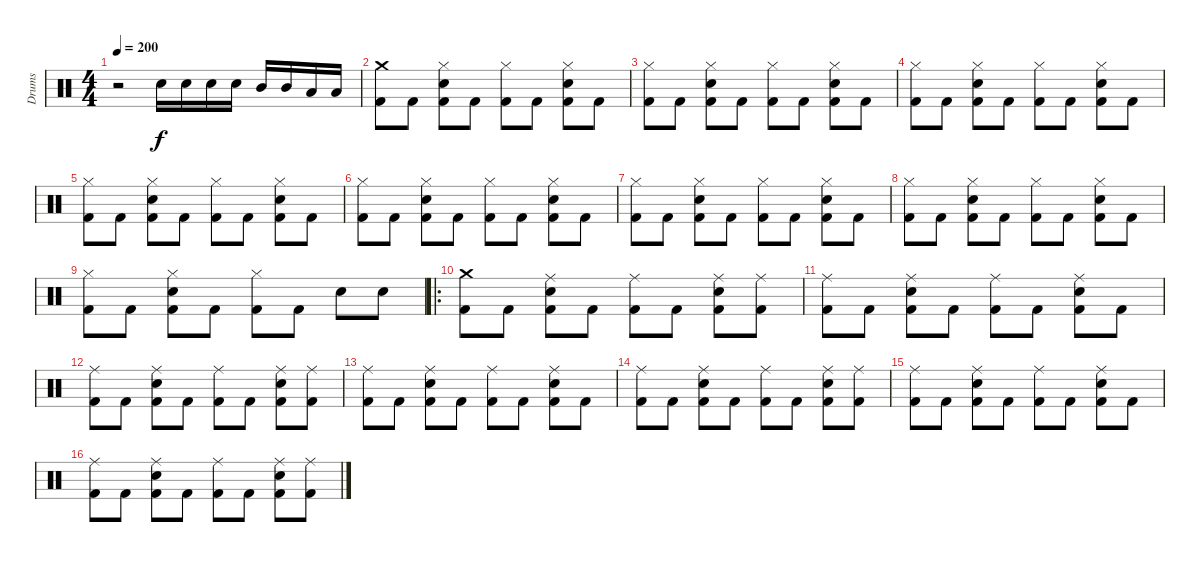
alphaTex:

\track ("Drums" "Drums") {instrument percussion}
\staff {score}
\articulation defaults
\ts (4 4)
\tempo 200
\clef neutral
\ks c
r.2{dy f} "Electric Snare (hit)".16 "Electric Snare (hit)".16 "Electric Snare (hit)".16 "Electric Snare (hit)".16 "Mid Tom (hit)".16 "Mid Tom (hit)".16 "Low Tom (hit)".16 "Low Tom (hit)".16 |
("Kick (hit) 2" "Crash medium (hit)").8 "Kick (hit) 2".8 ("Kick (hit) 2" "Hi-Hat (closed)" "Electric Snare (hit)").8 "Kick (hit) 2".8 ("Kick (hit) 2" "Hi-Hat (closed)").8 "Kick (hit) 2".8 ("Kick (hit) 2" "Hi-Hat (closed)" "Electric Snare (hit)").8 "Kick (hit) 2".8 |
("Kick (hit) 2" "Hi-Hat (closed)").8 "Kick (hit) 2".8 ("Kick (hit) 2" "Hi-Hat (closed)" "Electric Snare (hit)").8 "Kick (hit) 2".8 ("Kick (hit) 2" "Hi-Hat (closed)").8 "Kick (hit) 2".8 ("Kick (hit) 2" "Hi-Hat (closed)" "Electric Snare (hit)").8 "Kick (hit) 2".8 |
("Kick (hit) 2" "Hi-Hat (closed)").8 "Kick (hit) 2".8 ("Kick (hit) 2" "Hi-Hat (closed)" "Electric Snare (hit)").8 "Kick (hit) 2".8 ("Kick (hit) 2" "Hi-Hat (closed)").8 "Kick (hit) 2".8 ("Kick (hit) 2" "Hi-Hat (closed)" "Electric Snare (hit)").8 "Kick (hit) 2".8 |
("Kick (hit) 2" "Hi-Hat (closed)").8 "Kick (hit) 2".8 ("Kick (hit) 2" "Hi-Hat (closed)" "Electric Snare (hit)").8 "Kick (hit) 2".8 ("Kick (hit) 2" "Hi-Hat (closed)").8 "Kick (hit) 2".8 ("Kick (hit) 2" "Hi-Hat (closed)" "Electric Snare (hit)").8 "Kick (hit) 2".8 |
("Kick (hit) 2" "Hi-Hat (closed)").8 "Kick (hit) 2".8 ("Kick (hit) 2" "Hi-Hat (closed)" "Electric Snare (hit)").8 "Kick (hit) 2".8 ("Kick (hit) 2" "Hi-Hat (closed)").8 "Kick (hit) 2".8 ("Kick (hit) 2" "Hi-Hat (closed)" "Electric Snare (hit)").8 "Kick (hit) 2".8 |
("Kick (hit) 2" "Hi-Hat (closed)").8 "Kick (hit) 2".8 ("Kick (hit) 2" "Hi-Hat (closed)" "Electric Snare (hit)").8 "Kick (hit) 2".8 ("Kick (hit) 2" "Hi-Hat (closed)").8 "Kick (hit) 2".8 ("Kick (hit) 2" "Hi-Hat (closed)" "Electric Snare (hit)").8 "Kick (hit) 2".8 |
("Kick (hit) 2" "Hi-Hat (closed)").8 "Kick (hit) 2".8 ("Kick (hit) 2" "Hi-Hat (closed)" "Electric Snare (hit)").8 "Kick (hit) 2".8 ("Kick (hit) 2" "Hi-Hat (closed)").8 "Kick (hit) 2".8 ("Kick (hit) 2" "Hi-Hat (closed)" "Electric Snare (hit)").8 "Kick (hit) 2".8 |
("Kick (hit) 2" "Hi-Hat (closed)").8 "Kick (hit) 2".8 ("Kick (hit) 2" "Hi-Hat (closed)" "Electric Snare (hit)").8 "Kick (hit) 2".8 ("Kick (hit) 2" "Hi-Hat (closed)").8 "Kick (hit) 2".8 "Electric Snare (hit)".8 "Electric Snare (hit)".8 |
\ro
("Kick (hit) 2" "Crash medium (hit)").8 "Kick (hit) 2".8 ("Kick (hit) 2" "Ride (middle)" "Electric Snare (hit)").8 "Kick (hit) 2".8 ("Kick (hit) 2" "Ride (middle)").8 "Kick (hit) 2".8 ("Kick (hit) 2" "Ride (middle)" "Electric Snare (hit)").8 ("Kick (hit) 2" "Ride (middle)").8 |
("Kick (hit) 2" "Ride (middle)").8 "Kick (hit) 2".8 ("Kick (hit) 2" "Ride (middle)" "Electric Snare (hit)").8 "Kick (hit) 2".8 ("Kick (hit) 2" "Ride (middle)").8 "Kick (hit) 2".8 ("Kick (hit) 2" "Ride (middle)" "Electric Snare (hit)").8 "Kick (hit) 2".8 |
("Kick (hit) 2" "Ride (middle)").8 "Kick (hit) 2".8 ("Kick (hit) 2" "Ride (middle)" "Electric Snare (hit)").8 "Kick (hit) 2".8 ("Kick (hit) 2" "Ride (middle)").8 "Kick (hit) 2".8 ("Kick (hit) 2" "Ride (middle)" "Electric Snare (hit)").8 ("Kick (hit) 2" "Ride (middle)").8 |
("Kick (hit) 2" "Ride (middle)").8 "Kick (hit) 2".8 ("Kick (hit) 2" "Ride (middle)" "Electric Snare (hit)").8 "Kick (hit) 2".8 ("Kick (hit) 2" "Ride (middle)").8 "Kick (hit) 2".8 ("Kick (hit) 2" "Ride (middle)" "Electric Snare (hit)").8 "Kick (hit) 2".8 |
("Kick (hit) 2" "Ride (middle)").8 "Kick (hit) 2".8 ("Kick (hit) 2" "Ride (middle)" "Electric Snare (hit)").8 "Kick (hit) 2".8 ("Kick (hit) 2" "Ride (middle)").8 "Kick (hit) 2".8 ("Kick (hit) 2" "Ride (middle)" "Electric Snare (hit)").8 ("Kick (hit) 2" "Ride (middle)").8 |
("Kick (hit) 2" "Ride (middle)").8 "Kick (hit) 2".8 ("Kick (hit) 2" "Ride (middle)" "Electric Snare (hit)").8 "Kick (hit) 2".8 ("Kick (hit) 2" "Ride (middle)").8 "Kick (hit) 2".8 ("Kick (hit) 2" "Ride (middle)" "Electric Snare (hit)").8 "Kick (hit) 2".8 |
("Kick (hit) 2" "Ride (middle)").8 "Kick (hit) 2".8 ("Kick (hit) 2" "Ride (middle)" "Electric Snare (hit)").8 "Kick (hit) 2".8 ("Kick (hit) 2" "Ride (middle)").8 "Kick (hit) 2".8 ("Kick (hit) 2" "Ride (middle)" "Electric Snare (hit)").8 ("Kick (hit) 2" "Ride (middle)").8
